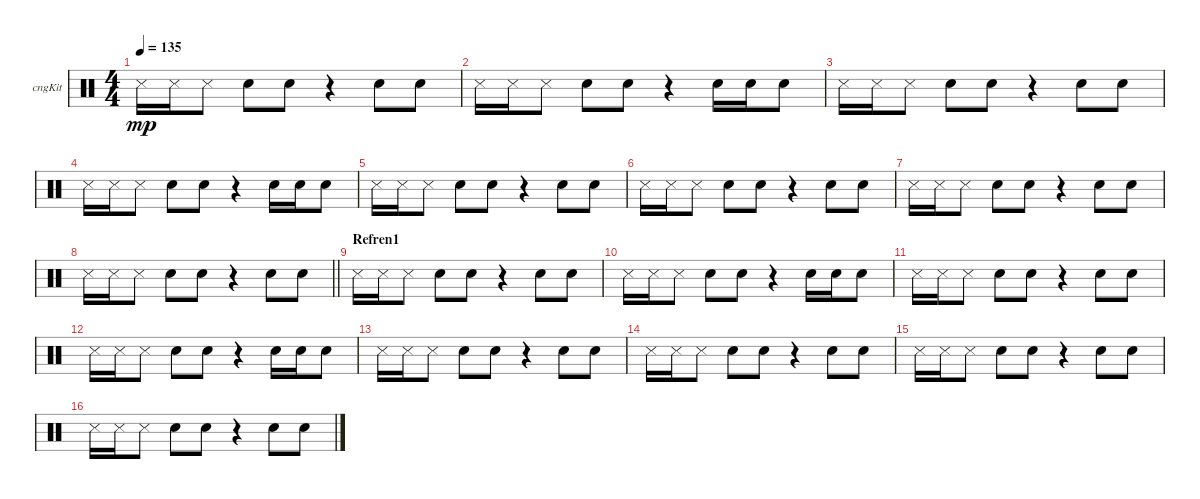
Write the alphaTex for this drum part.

\bracketExtendMode groupsimilarinstruments
\firstSystemTrackNameOrientation horizontal
\otherSystemsTrackNameOrientation horizontal
\track ("Congas" "cngKit") {instrument percussion}
\staff {score}
\articulation defaults
\ts (4 4)
\tempo 135
\clef neutral
\ks c "Snare (side stick) 3".16{dy mp} "Snare (side stick) 3".16 "Snare (side stick) 3".8 "Snare (hit) 2".8 "Snare (hit) 2".8
r.4 "Snare (hit) 2".8 "Snare (hit) 2".8 |
"Snare (side stick) 3".16 "Snare (side stick) 3".16 "Snare (side stick) 3".8 "Snare (hit) 2".8 "Snare (hit) 2".8 r.4 "Snare (hit) 2".16 "Snare (hit) 2".16 "Snare (hit) 2".8 |
"Snare (side stick) 3".16 "Snare (side stick) 3".16 "Snare (side stick) 3".8 "Snare (hit) 2".8 "Snare (hit) 2".8 r.4 "Snare (hit) 2".8 "Snare (hit) 2".8 |
"Snare (side stick) 3".16 "Snare (side stick) 3".16 "Snare (side stick) 3".8 "Snare (hit) 2".8 "Snare (hit) 2".8 r.4 "Snare (hit) 2".16 "Snare (hit) 2".16 "Snare (hit) 2".8 |
"Snare (side stick) 3".16 "Snare (side stick) 3".16 "Snare (side stick) 3".8 "Snare (hit) 2".8 "Snare (hit) 2".8 r.4 "Snare (hit) 2".8 "Snare (hit) 2".8 |
"Snare (side stick) 3".16 "Snare (side stick) 3".16 "Snare (side stick) 3".8 "Snare (hit) 2".8 "Snare (hit) 2".8 r.4 "Snare (hit) 2".8 "Snare (hit) 2".8 |
"Snare (side stick) 3".16 "Snare (side stick) 3".16 "Snare (side stick) 3".8 "Snare (hit) 2".8 "Snare (hit) 2".8 r.4 "Snare (hit) 2".8 "Snare (hit) 2".8 |
\barLineRight lightlight "Snare (side stick) 3".16 "Snare (side stick) 3".16 "Snare (side stick) 3".8 "Snare (hit) 2".8 "Snare (hit) 2".8
r.4 "Snare (hit) 2".8 "Snare (hit) 2".8 |
\section ("" "Refren1")
"Snare (side stick) 3".16 "Snare (side stick) 3".16 "Snare (side stick) 3".8 "Snare (hit) 2".8 "Snare (hit) 2".8 r.4 "Snare (hit) 2".8 "Snare (hit) 2".8 |
"Snare (side stick) 3".16 "Snare (side stick) 3".16 "Snare (side stick) 3".8 "Snare (hit) 2".8 "Snare (hit) 2".8 r.4 "Snare (hit) 2".16 "Snare (hit) 2".16 "Snare (hit) 2".8 |
"Snare (side stick) 3".16 "Snare (side stick) 3".16 "Snare (side stick) 3".8 "Snare (hit) 2".8 "Snare (hit) 2".8 r.4 "Snare (hit) 2".8 "Snare (hit) 2".8 |
"Snare (side stick) 3".16 "Snare (side stick) 3".16 "Snare (side stick) 3".8 "Snare (hit) 2".8 "Snare (hit) 2".8 r.4 "Snare (hit) 2".16 "Snare (hit) 2".16 "Snare (hit) 2".8 |
"Snare (side stick) 3".16 "Snare (side stick) 3".16 "Snare (side stick) 3".8 "Snare (hit) 2".8 "Snare (hit) 2".8 r.4 "Snare (hit) 2".8 "Snare (hit) 2".8 |
"Snare (side stick) 3".16 "Snare (side stick) 3".16 "Snare (side stick) 3".8 "Snare (hit) 2".8 "Snare (hit) 2".8 r.4 "Snare (hit) 2".8 "Snare (hit) 2".8 |
"Snare (side stick) 3".16 "Snare (side stick) 3".16 "Snare (side stick) 3".8 "Snare (hit) 2".8 "Snare (hit) 2".8 r.4 "Snare (hit) 2".8 "Snare (hit) 2".8 |
"Snare (side stick) 3".16 "Snare (side stick) 3".16 "Snare (side stick) 3".8 "Snare (hit) 2".8 "Snare (hit) 2".8 r.4 "Snare (hit) 2".8 "Snare (hit) 2".8
